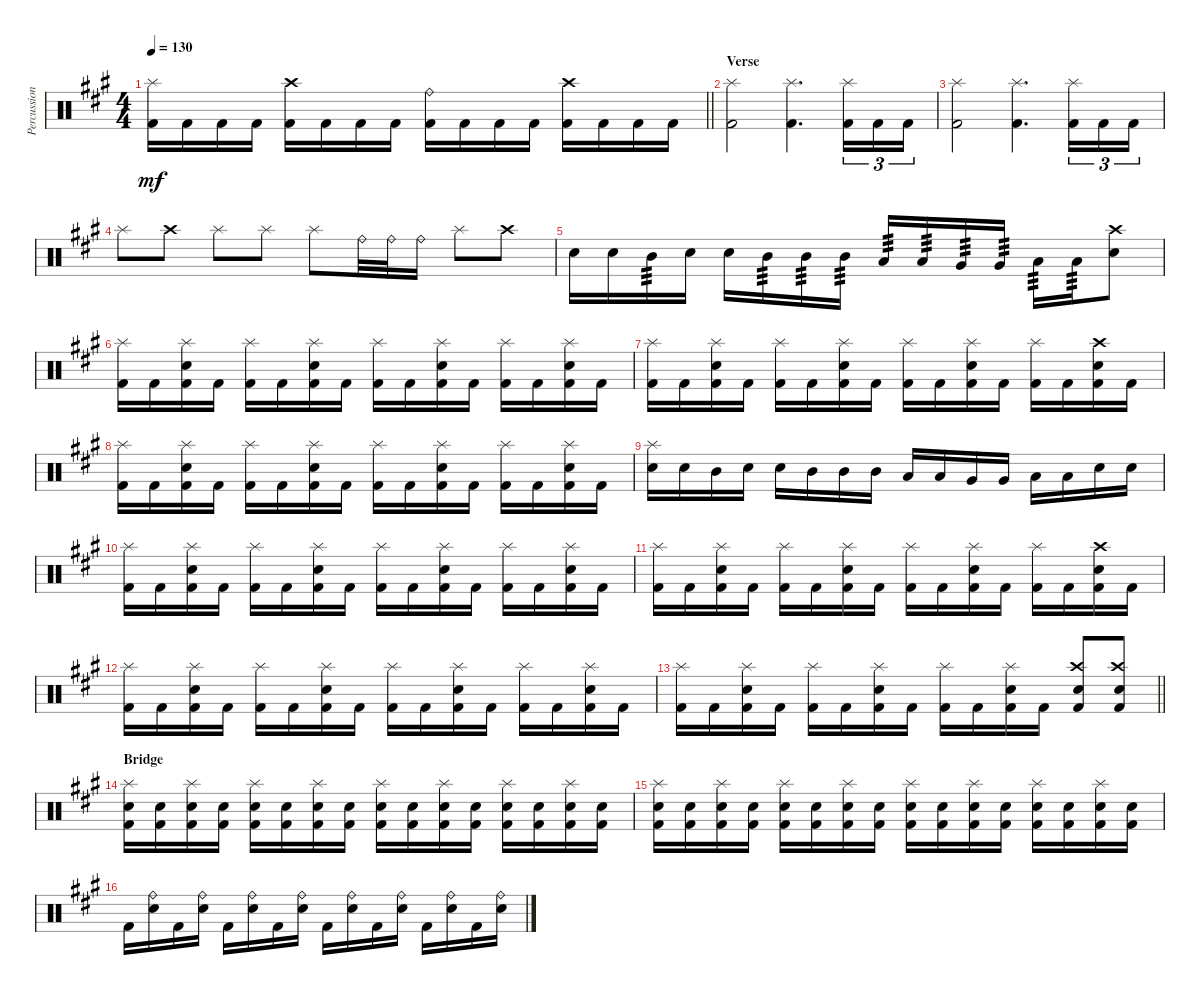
\track ("Percussion" "Percussion") {instrument percussion bank 127}
\staff {score}
\articulation defaults
\ts (4 4)
\tempo 130
\clef neutral
\barLineRight lightlight
\ks a
("Splash (hit)" "Kick (hit) 2").16{dy mf} "Kick (hit) 2".16 "Kick (hit) 2".16 "Kick (hit) 2".16 ("Crash high (hit)" "Kick (hit) 2").16 "Kick (hit) 2".16 "Kick (hit) 2".16 "Kick (hit) 2".16 ("Ride (bell)" "Kick (hit) 2").16 "Kick (hit) 2".16 "Kick (hit) 2".16 "Kick (hit) 2".16 ("Crash high (hit)" "Kick (hit) 2").16 "Kick (hit) 2".16 "Kick (hit) 2".16 "Kick (hit) 2".16 |
\section ("" "Verse")
("Splash (hit)" "Kick (hit) 2").2 ("Splash (hit)" "Kick (hit) 2").4{d} ("Splash (hit)" "Kick (hit) 2").16{tu (3 2)} "Kick (hit) 2".16{tu (3 2)} "Kick (hit) 2".16{tu (3 2)} |
("Splash (hit)" "Kick (hit) 2").2 ("Splash (hit)" "Kick (hit) 2").4{d} ("Splash (hit)" "Kick (hit) 2").16{tu (3 2)} "Kick (hit) 2".16{tu (3 2)} "Kick (hit) 2".16{tu (3 2)} |
"Splash (hit)".8 "Crash high (hit)".8 "Splash (hit)".8 "Splash (hit)".8 "Splash (hit)".8 "Ride (bell)".32 "Ride (bell)".32 "Ride (bell)".16 "Splash (hit)".8 "Crash high (hit)".8 |
"Electric Snare (hit)".16 "Electric Snare (hit)".16 "Mid Tom (hit)".16{tp 3} "Electric Snare (hit)".16 "Electric Snare (hit)".16 "Mid Tom (hit)".16{tp 3} "Mid Tom (hit)".16{tp 3} "Mid Tom (hit)".16{tp 3} "Low Tom (hit)".16{tp 3} "Low Tom (hit)".16{tp 3} "Very Low Tom (hit)".16{tp 3} "Very Low Tom (hit)".16{tp 3} "Low Floor Tom (hit)".16{tp 3} "Low Floor Tom (hit)".16{tp 3} ("Crash high (hit)" "Electric Snare (hit)").8 |
("Splash (hit)" "Kick (hit) 2").16 "Kick (hit) 2".16 ("Splash (hit)" "Electric Snare (hit)" "Kick (hit) 2").16 "Kick (hit) 2".16 ("Splash (hit)" "Kick (hit) 2").16 "Kick (hit) 2".16 ("Splash (hit)" "Electric Snare (hit)" "Kick (hit) 2").16 "Kick (hit) 2".16 ("Splash (hit)" "Kick (hit) 2").16 "Kick (hit) 2".16 ("Splash (hit)" "Electric Snare (hit)" "Kick (hit) 2").16 "Kick (hit) 2".16 ("Splash (hit)" "Kick (hit) 2").16 "Kick (hit) 2".16 ("Splash (hit)" "Electric Snare (hit)" "Kick (hit) 2").16 "Kick (hit) 2".16 |
("Splash (hit)" "Kick (hit) 2").16 "Kick (hit) 2".16 ("Splash (hit)" "Electric Snare (hit)" "Kick (hit) 2").16 "Kick (hit) 2".16 ("Splash (hit)" "Kick (hit) 2").16 "Kick (hit) 2".16 ("Splash (hit)" "Electric Snare (hit)" "Kick (hit) 2").16 "Kick (hit) 2".16 ("Splash (hit)" "Kick (hit) 2").16 "Kick (hit) 2".16 ("Splash (hit)" "Electric Snare (hit)" "Kick (hit) 2").16 "Kick (hit) 2".16 ("Splash (hit)" "Kick (hit) 2").16 "Kick (hit) 2".16 ("Crash high (hit)" "Electric Snare (hit)" "Kick (hit) 2").16 "Kick (hit) 2".16 |
("Splash (hit)" "Kick (hit) 2").16 "Kick (hit) 2".16 ("Splash (hit)" "Electric Snare (hit)" "Kick (hit) 2").16 "Kick (hit) 2".16 ("Splash (hit)" "Kick (hit) 2").16 "Kick (hit) 2".16 ("Splash (hit)" "Electric Snare (hit)" "Kick (hit) 2").16 "Kick (hit) 2".16 ("Splash (hit)" "Kick (hit) 2").16 "Kick (hit) 2".16 ("Splash (hit)" "Electric Snare (hit)" "Kick (hit) 2").16 "Kick (hit) 2".16 ("Splash (hit)" "Kick (hit) 2").16 "Kick (hit) 2".16 ("Splash (hit)" "Electric Snare (hit)" "Kick (hit) 2").16 "Kick (hit) 2".16 |
("Splash (hit)" "Electric Snare (hit)").16 "Electric Snare (hit)".16 "Mid Tom (hit)".16 "Electric Snare (hit)".16 "Electric Snare (hit)".16 "Mid Tom (hit)".16 "Mid Tom (hit)".16 "Mid Tom (hit)".16 "Low Tom (hit)".16 "Low Tom (hit)".16 "Very Low Tom (hit)".16 "Very Low Tom (hit)".16 "Low Floor Tom (hit)".16 "Low Floor Tom (hit)".16 "Electric Snare (hit)".16 "Electric Snare (hit)".16 |
("Splash (hit)" "Kick (hit) 2").16 "Kick (hit) 2".16 ("Splash (hit)" "Electric Snare (hit)" "Kick (hit) 2").16 "Kick (hit) 2".16 ("Splash (hit)" "Kick (hit) 2").16 "Kick (hit) 2".16 ("Splash (hit)" "Electric Snare (hit)" "Kick (hit) 2").16 "Kick (hit) 2".16 ("Splash (hit)" "Kick (hit) 2").16 "Kick (hit) 2".16 ("Splash (hit)" "Electric Snare (hit)" "Kick (hit) 2").16 "Kick (hit) 2".16 ("Splash (hit)" "Kick (hit) 2").16 "Kick (hit) 2".16 ("Splash (hit)" "Electric Snare (hit)" "Kick (hit) 2").16 "Kick (hit) 2".16 |
("Splash (hit)" "Kick (hit) 2").16 "Kick (hit) 2".16 ("Splash (hit)" "Electric Snare (hit)" "Kick (hit) 2").16 "Kick (hit) 2".16 ("Splash (hit)" "Kick (hit) 2").16 "Kick (hit) 2".16 ("Splash (hit)" "Electric Snare (hit)" "Kick (hit) 2").16 "Kick (hit) 2".16 ("Splash (hit)" "Kick (hit) 2").16 "Kick (hit) 2".16 ("Splash (hit)" "Electric Snare (hit)" "Kick (hit) 2").16 "Kick (hit) 2".16 ("Splash (hit)" "Kick (hit) 2").16 "Kick (hit) 2".16 ("Crash high (hit)" "Electric Snare (hit)" "Kick (hit) 2").16 "Kick (hit) 2".16 |
("Splash (hit)" "Kick (hit) 2").16 "Kick (hit) 2".16 ("Splash (hit)" "Electric Snare (hit)" "Kick (hit) 2").16 "Kick (hit) 2".16 ("Splash (hit)" "Kick (hit) 2").16 "Kick (hit) 2".16 ("Splash (hit)" "Electric Snare (hit)" "Kick (hit) 2").16 "Kick (hit) 2".16 ("Splash (hit)" "Kick (hit) 2").16 "Kick (hit) 2".16 ("Splash (hit)" "Electric Snare (hit)" "Kick (hit) 2").16 "Kick (hit) 2".16 ("Splash (hit)" "Kick (hit) 2").16 "Kick (hit) 2".16 ("Splash (hit)" "Electric Snare (hit)" "Kick (hit) 2").16 "Kick (hit) 2".16 |
\barLineRight lightlight
("Splash (hit)" "Kick (hit) 2").16 "Kick (hit) 2".16 ("Splash (hit)" "Electric Snare (hit)" "Kick (hit) 2").16 "Kick (hit) 2".16 ("Splash (hit)" "Kick (hit) 2").16 "Kick (hit) 2".16 ("Splash (hit)" "Electric Snare (hit)" "Kick (hit) 2").16 "Kick (hit) 2".16 ("Splash (hit)" "Kick (hit) 2").16 "Kick (hit) 2".16 ("Splash (hit)" "Electric Snare (hit)" "Kick (hit) 2").16 "Kick (hit) 2".16 ("Crash high (hit)" "Electric Snare (hit)" "Kick (hit) 2").8 ("Crash high (hit)" "Electric Snare (hit)" "Kick (hit) 2").8 |
\section ("" "Bridge")
("Splash (hit)" "Electric Snare (hit)" "Kick (hit) 2").16 ("Electric Snare (hit)" "Kick (hit) 2").16 ("Splash (hit)" "Electric Snare (hit)" "Kick (hit) 2").16 ("Electric Snare (hit)" "Kick (hit) 2").16 ("Splash (hit)" "Electric Snare (hit)" "Kick (hit) 2").16 ("Electric Snare (hit)" "Kick (hit) 2").16 ("Splash (hit)" "Electric Snare (hit)" "Kick (hit) 2").16 ("Electric Snare (hit)" "Kick (hit) 2").16 ("Splash (hit)" "Electric Snare (hit)" "Kick (hit) 2").16 ("Electric Snare (hit)" "Kick (hit) 2").16 ("Splash (hit)" "Electric Snare (hit)" "Kick (hit) 2").16 ("Electric Snare (hit)" "Kick (hit) 2").16 ("Splash (hit)" "Electric Snare (hit)" "Kick (hit) 2").16 ("Electric Snare (hit)" "Kick (hit) 2").16 ("Splash (hit)" "Electric Snare (hit)" "Kick (hit) 2").16 ("Electric Snare (hit)" "Kick (hit) 2").16 |
("Splash (hit)" "Electric Snare (hit)" "Kick (hit) 2").16 ("Electric Snare (hit)" "Kick (hit) 2").16 ("Splash (hit)" "Electric Snare (hit)" "Kick (hit) 2").16 ("Electric Snare (hit)" "Kick (hit) 2").16 ("Splash (hit)" "Electric Snare (hit)" "Kick (hit) 2").16 ("Electric Snare (hit)" "Kick (hit) 2").16 ("Splash (hit)" "Electric Snare (hit)" "Kick (hit) 2").16 ("Electric Snare (hit)" "Kick (hit) 2").16 ("Splash (hit)" "Electric Snare (hit)" "Kick (hit) 2").16 ("Electric Snare (hit)" "Kick (hit) 2").16 ("Splash (hit)" "Electric Snare (hit)" "Kick (hit) 2").16 ("Electric Snare (hit)" "Kick (hit) 2").16 ("Splash (hit)" "Electric Snare (hit)" "Kick (hit) 2").16 ("Electric Snare (hit)" "Kick (hit) 2").16 ("Splash (hit)" "Electric Snare (hit)" "Kick (hit) 2").16 ("Electric Snare (hit)" "Kick (hit) 2").16 |
"Kick (hit) 2".16 ("Ride (bell)" "Electric Snare (hit)").16 "Kick (hit) 2".16 ("Ride (bell)" "Electric Snare (hit)").16 "Kick (hit) 2".16 ("Ride (bell)" "Electric Snare (hit)").16 "Kick (hit) 2".16 ("Ride (bell)" "Electric Snare (hit)").16 "Kick (hit) 2".16 ("Ride (bell)" "Electric Snare (hit)").16 "Kick (hit) 2".16 ("Ride (bell)" "Electric Snare (hit)").16 "Kick (hit) 2".16 ("Ride (bell)" "Electric Snare (hit)").16 "Kick (hit) 2".16 ("Ride (bell)" "Electric Snare (hit)").16
